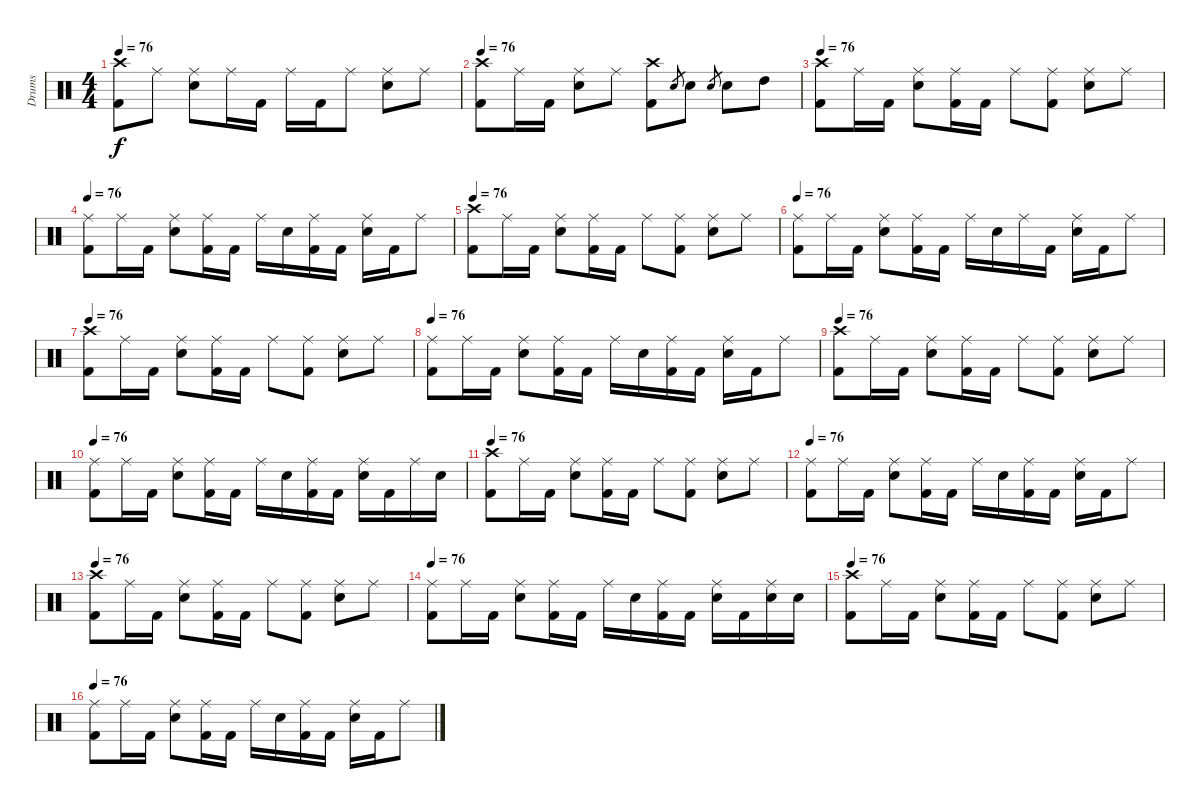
\track ("Drums" "Drums") {instrument percussion}
\staff {score}
\articulation defaults
\ts (4 4)
\tempo 76
\clef neutral
\ks c
("Crash high (hit)" "Kick (hit) 2").8{dy f} "Ride (middle)".8 ("Ride (middle)" "Snare (hit) 2").8 "Ride (middle)".16 "Kick (hit) 2".16 "Ride (middle)".16 "Kick (hit) 2".16 "Ride (middle)".8 ("Ride (middle)" "Snare (hit) 2").8 "Ride (middle)".8 |
\tempo 76
("Crash high (hit)" "Kick (hit) 2").8 "Ride (middle)".16 "Kick (hit) 2".16 ("Ride (middle)" "Snare (hit) 2").8 "Ride (middle)".8 ("Crash high (hit)" "Kick (hit) 2").8 "Snare (hit) 2".8{gr} "Snare (hit) 2".8 "Snare (hit) 2".8{gr} "Snare (hit) 2".8 "High Tom (hit)".8 |
\tempo 76
("Crash high (hit)" "Kick (hit) 2").8 "Ride (middle)".16 "Kick (hit) 2".16 ("Ride (middle)" "Snare (hit) 2").8 ("Ride (middle)" "Kick (hit) 2").16 "Kick (hit) 2".16 "Ride (middle)".8 ("Ride (middle)" "Kick (hit) 2").8 ("Ride (middle)" "Snare (hit) 2").8 "Ride (middle)".8 |
\tempo 76
("Ride (middle)" "Kick (hit) 2").8 "Ride (middle)".16 "Kick (hit) 2".16 ("Ride (middle)" "Snare (hit) 2").8 ("Ride (middle)" "Kick (hit) 2").16 "Kick (hit) 2".16 "Ride (middle)".16 "Snare (hit) 2".16 ("Ride (middle)" "Kick (hit) 2").16 "Kick (hit) 2".16 ("Ride (middle)" "Snare (hit) 2").16 "Kick (hit) 2".16 "Ride (middle)".8 |
\tempo 76
("Crash high (hit)" "Kick (hit) 2").8 "Ride (middle)".16 "Kick (hit) 2".16 ("Ride (middle)" "Snare (hit) 2").8 ("Ride (middle)" "Kick (hit) 2").16 "Kick (hit) 2".16 "Ride (middle)".8 ("Ride (middle)" "Kick (hit) 2").8 ("Ride (middle)" "Snare (hit) 2").8 "Ride (middle)".8 |
\tempo 76
("Ride (middle)" "Kick (hit) 2").8 "Ride (middle)".16 "Kick (hit) 2".16 ("Ride (middle)" "Snare (hit) 2").8 ("Ride (middle)" "Kick (hit) 2").16 "Kick (hit) 2".16 "Ride (middle)".16 "Snare (hit) 2".16 "Ride (middle)".16 "Kick (hit) 2".16 ("Ride (middle)" "Snare (hit) 2").16 "Kick (hit) 2".16 "Ride (middle)".8 |
\tempo 76
("Crash high (hit)" "Kick (hit) 2").8 "Ride (middle)".16 "Kick (hit) 2".16 ("Ride (middle)" "Snare (hit) 2").8 ("Ride (middle)" "Kick (hit) 2").16 "Kick (hit) 2".16 "Ride (middle)".8 ("Ride (middle)" "Kick (hit) 2").8 ("Ride (middle)" "Snare (hit) 2").8 "Ride (middle)".8 |
\tempo 76
("Ride (middle)" "Kick (hit) 2").8 "Ride (middle)".16 "Kick (hit) 2".16 ("Ride (middle)" "Snare (hit) 2").8 ("Ride (middle)" "Kick (hit) 2").16 "Kick (hit) 2".16 "Ride (middle)".16 "Snare (hit) 2".16 ("Ride (middle)" "Kick (hit) 2").16 "Kick (hit) 2".16 ("Ride (middle)" "Snare (hit) 2").16 "Kick (hit) 2".16 "Ride (middle)".8 |
\tempo 76
("Crash high (hit)" "Kick (hit) 2").8 "Ride (middle)".16 "Kick (hit) 2".16 ("Ride (middle)" "Snare (hit) 2").8 ("Ride (middle)" "Kick (hit) 2").16 "Kick (hit) 2".16 "Ride (middle)".8 ("Ride (middle)" "Kick (hit) 2").8 ("Ride (middle)" "Snare (hit) 2").8 "Ride (middle)".8 |
\tempo 76
("Ride (middle)" "Kick (hit) 2").8 "Ride (middle)".16 "Kick (hit) 2".16 ("Ride (middle)" "Snare (hit) 2").8 ("Ride (middle)" "Kick (hit) 2").16 "Kick (hit) 2".16 "Ride (middle)".16 "Snare (hit) 2".16 ("Ride (middle)" "Kick (hit) 2").16 "Kick (hit) 2".16 ("Ride (middle)" "Snare (hit) 2").16 "Kick (hit) 2".16 "Ride (middle)".16 "Snare (hit) 2".16 |
\tempo 76
("Crash high (hit)" "Kick (hit) 2").8 "Ride (middle)".16 "Kick (hit) 2".16 ("Ride (middle)" "Snare (hit) 2").8 ("Ride (middle)" "Kick (hit) 2").16 "Kick (hit) 2".16 "Ride (middle)".8 ("Ride (middle)" "Kick (hit) 2").8 ("Ride (middle)" "Snare (hit) 2").8 "Ride (middle)".8 |
\tempo 76
("Ride (middle)" "Kick (hit) 2").8 "Ride (middle)".16 "Kick (hit) 2".16 ("Ride (middle)" "Snare (hit) 2").8 ("Ride (middle)" "Kick (hit) 2").16 "Kick (hit) 2".16 "Ride (middle)".16 "Snare (hit) 2".16 ("Ride (middle)" "Kick (hit) 2").16 "Kick (hit) 2".16 ("Ride (middle)" "Snare (hit) 2").16 "Kick (hit) 2".16 "Ride (middle)".8 |
\tempo 76
("Crash high (hit)" "Kick (hit) 2").8 "Ride (middle)".16 "Kick (hit) 2".16 ("Ride (middle)" "Snare (hit) 2").8 ("Ride (middle)" "Kick (hit) 2").16 "Kick (hit) 2".16 "Ride (middle)".8 ("Ride (middle)" "Kick (hit) 2").8 ("Ride (middle)" "Snare (hit) 2").8 "Ride (middle)".8 |
\tempo 76
("Ride (middle)" "Kick (hit) 2").8 "Ride (middle)".16 "Kick (hit) 2".16 ("Ride (middle)" "Snare (hit) 2").8 ("Ride (middle)" "Kick (hit) 2").16 "Kick (hit) 2".16 "Ride (middle)".16 "Snare (hit) 2".16 ("Ride (middle)" "Kick (hit) 2").16 "Kick (hit) 2".16 ("Ride (middle)" "Snare (hit) 2").16 "Kick (hit) 2".16 ("Ride (middle)" "Snare (hit) 2").16 "Snare (hit) 2".16 |
\tempo 76
("Crash high (hit)" "Kick (hit) 2").8 "Ride (middle)".16 "Kick (hit) 2".16 ("Ride (middle)" "Snare (hit) 2").8 ("Ride (middle)" "Kick (hit) 2").16 "Kick (hit) 2".16 "Ride (middle)".8 ("Ride (middle)" "Kick (hit) 2").8 ("Ride (middle)" "Snare (hit) 2").8 "Ride (middle)".8 |
\tempo 76
("Ride (middle)" "Kick (hit) 2").8 "Ride (middle)".16 "Kick (hit) 2".16 ("Ride (middle)" "Snare (hit) 2").8 ("Ride (middle)" "Kick (hit) 2").16 "Kick (hit) 2".16 "Ride (middle)".16 "Snare (hit) 2".16 ("Ride (middle)" "Kick (hit) 2").16 "Kick (hit) 2".16 ("Ride (middle)" "Snare (hit) 2").16 "Kick (hit) 2".16 "Ride (middle)".8
